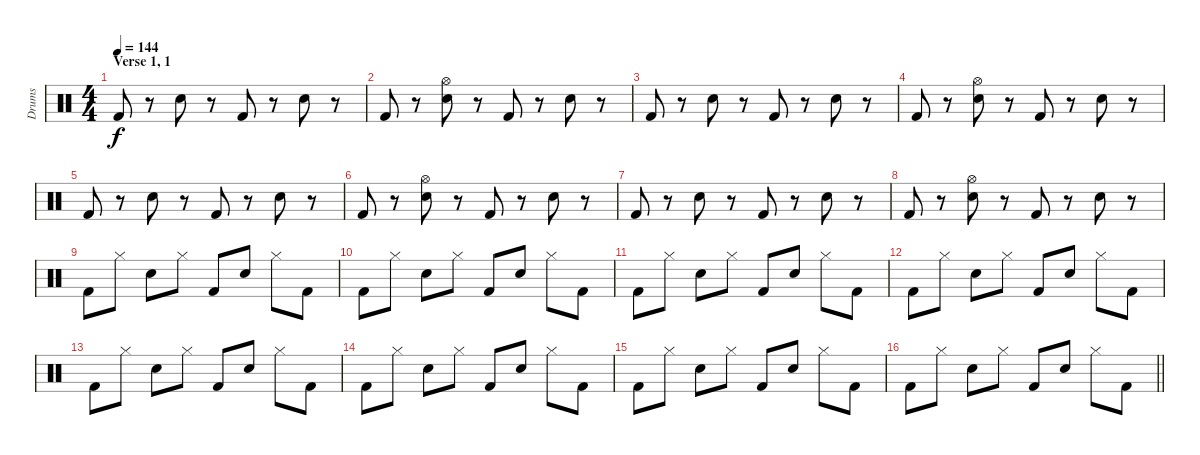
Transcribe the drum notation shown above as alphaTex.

\track ("Drums" "Drums") {instrument percussion}
\staff {score}
\articulation defaults
\ts (4 4)
\section ("" "Verse 1, 1")
\tempo 144
\clef neutral
\ks c "Kick (hit) 2".8{dy f}
r.8 "Snare (hit) 2".8 r.8 "Kick (hit) 2".8 r.8 "Snare (hit) 2".8 r.8 |
"Kick (hit) 2".8 r.8 ("Hi-Hat (open)" "Snare (hit) 2").8 r.8 "Kick (hit) 2".8 r.8 "Snare (hit) 2".8 r.8 |
"Kick (hit) 2".8 r.8 "Snare (hit) 2".8 r.8 "Kick (hit) 2".8 r.8 "Snare (hit) 2".8 r.8 |
"Kick (hit) 2".8 r.8 ("Hi-Hat (open)" "Snare (hit) 2").8 r.8 "Kick (hit) 2".8 r.8 "Snare (hit) 2".8 r.8 |
"Kick (hit) 2".8 r.8 "Snare (hit) 2".8 r.8 "Kick (hit) 2".8 r.8 "Snare (hit) 2".8 r.8 |
"Kick (hit) 2".8 r.8 ("Hi-Hat (open)" "Snare (hit) 2").8 r.8 "Kick (hit) 2".8 r.8 "Snare (hit) 2".8 r.8 |
"Kick (hit) 2".8 r.8 "Snare (hit) 2".8 r.8 "Kick (hit) 2".8 r.8 "Snare (hit) 2".8 r.8 |
"Kick (hit) 2".8 r.8 ("Hi-Hat (open)" "Snare (hit) 2").8 r.8 "Kick (hit) 2".8 r.8 "Snare (hit) 2".8 r.8 |
"Kick (hit) 2".8 "Hi-Hat (closed)".8 "Snare (hit) 2".8 "Hi-Hat (closed)".8 "Kick (hit) 2".8 "Snare (hit) 2".8 "Hi-Hat (closed)".8 "Kick (hit) 2".8 |
"Kick (hit) 2".8 "Hi-Hat (closed)".8 "Snare (hit) 2".8 "Hi-Hat (closed)".8 "Kick (hit) 2".8 "Snare (hit) 2".8 "Hi-Hat (closed)".8 "Kick (hit) 2".8 |
"Kick (hit) 2".8 "Hi-Hat (closed)".8 "Snare (hit) 2".8 "Hi-Hat (closed)".8 "Kick (hit) 2".8 "Snare (hit) 2".8 "Hi-Hat (closed)".8 "Kick (hit) 2".8 |
"Kick (hit) 2".8 "Hi-Hat (closed)".8 "Snare (hit) 2".8 "Hi-Hat (closed)".8 "Kick (hit) 2".8 "Snare (hit) 2".8 "Hi-Hat (closed)".8 "Kick (hit) 2".8 |
"Kick (hit) 2".8 "Hi-Hat (closed)".8 "Snare (hit) 2".8 "Hi-Hat (closed)".8 "Kick (hit) 2".8 "Snare (hit) 2".8 "Hi-Hat (closed)".8 "Kick (hit) 2".8 |
"Kick (hit) 2".8 "Hi-Hat (closed)".8 "Snare (hit) 2".8 "Hi-Hat (closed)".8 "Kick (hit) 2".8 "Snare (hit) 2".8 "Hi-Hat (closed)".8 "Kick (hit) 2".8 |
"Kick (hit) 2".8 "Hi-Hat (closed)".8 "Snare (hit) 2".8 "Hi-Hat (closed)".8 "Kick (hit) 2".8 "Snare (hit) 2".8 "Hi-Hat (closed)".8 "Kick (hit) 2".8 |
\barLineRight lightlight "Kick (hit) 2".8 "Hi-Hat (closed)".8 "Snare (hit) 2".8 "Hi-Hat (closed)".8 "Kick (hit) 2".8 "Snare (hit) 2".8 "Hi-Hat (closed)".8 "Kick (hit) 2".8
